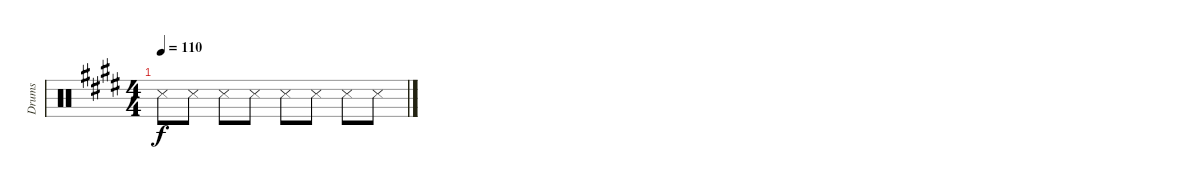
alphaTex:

\track ("Drums" "Drums") {instrument percussion}
\staff {score}
\articulation defaults
\ts (4 4)
\tempo 110
\clef neutral
\ks c#minor "Metronome (hit)".8{dy f} "Metronome (hit)".8 "Metronome (hit)".8 "Metronome (hit)".8 "Metronome (hit)".8 "Metronome (hit)".8 "Metronome (hit)".8 "Metronome (hit)".8
